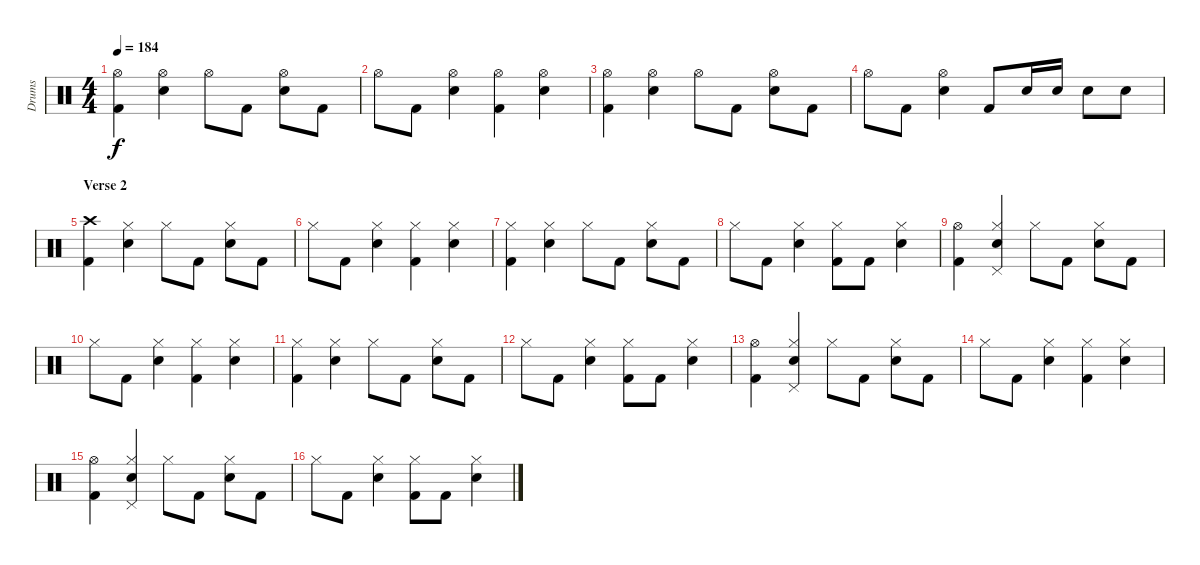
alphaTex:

\track ("Drums" "Drums") {instrument percussion}
\staff {score}
\articulation defaults
\ts (4 4)
\tempo 184
\clef neutral
\ks c
("Hi-Hat (open)" "Kick (hit) 2").4{dy f} ("Hi-Hat (open)" "Snare (hit) 2").4 "Hi-Hat (open)".8 "Kick (hit) 2".8 ("Hi-Hat (open)" "Snare (hit) 2").8 "Kick (hit) 2".8 |
"Hi-Hat (open)".8 "Kick (hit) 2".8 ("Hi-Hat (open)" "Snare (hit) 2").4 ("Hi-Hat (open)" "Kick (hit) 2").4 ("Hi-Hat (open)" "Snare (hit) 2").4 |
("Hi-Hat (open)" "Kick (hit) 2").4 ("Hi-Hat (open)" "Snare (hit) 2").4 "Hi-Hat (open)".8 "Kick (hit) 2".8 ("Hi-Hat (open)" "Snare (hit) 2").8 "Kick (hit) 2".8 |
"Hi-Hat (open)".8 "Kick (hit) 2".8 ("Hi-Hat (open)" "Snare (hit) 2").4 "Kick (hit) 2".8 "Snare (hit) 2".16 "Snare (hit) 2".16 "Snare (hit) 2".8 "Snare (hit) 2".8 |
\section ("" "Verse 2")
("Crash high (hit)" "Kick (hit) 2").4 ("Hi-Hat (closed)" "Snare (hit) 2").4 "Hi-Hat (closed)".8 "Kick (hit) 2".8 ("Hi-Hat (closed)" "Snare (hit) 2").8 "Kick (hit) 2".8 |
"Hi-Hat (closed)".8 "Kick (hit) 2".8 ("Hi-Hat (closed)" "Snare (hit) 2").4 ("Hi-Hat (closed)" "Kick (hit) 2").4 ("Hi-Hat (closed)" "Snare (hit) 2").4 |
("Hi-Hat (closed)" "Kick (hit) 2").4 ("Hi-Hat (closed)" "Snare (hit) 2").4 "Hi-Hat (closed)".8 "Kick (hit) 2".8 ("Hi-Hat (closed)" "Snare (hit) 2").8 "Kick (hit) 2".8 |
"Hi-Hat (closed)".8 "Kick (hit) 2".8 ("Hi-Hat (closed)" "Snare (hit) 2").4 ("Hi-Hat (closed)" "Kick (hit) 2").8 "Kick (hit) 2".8 ("Hi-Hat (closed)" "Snare (hit) 2").4 |
("Hi-Hat (open)" "Kick (hit) 2").4 ("Hi-Hat (closed)" "Snare (hit) 2" "Pedal Hi-Hat (hit)").4 "Hi-Hat (closed)".8 "Kick (hit) 2".8 ("Hi-Hat (closed)" "Snare (hit) 2").8 "Kick (hit) 2".8 |
"Hi-Hat (closed)".8 "Kick (hit) 2".8 ("Hi-Hat (closed)" "Snare (hit) 2").4 ("Hi-Hat (closed)" "Kick (hit) 2").4 ("Hi-Hat (closed)" "Snare (hit) 2").4 |
("Hi-Hat (closed)" "Kick (hit) 2").4 ("Hi-Hat (closed)" "Snare (hit) 2").4 "Hi-Hat (closed)".8 "Kick (hit) 2".8 ("Hi-Hat (closed)" "Snare (hit) 2").8 "Kick (hit) 2".8 |
"Hi-Hat (closed)".8 "Kick (hit) 2".8 ("Hi-Hat (closed)" "Snare (hit) 2").4 ("Hi-Hat (closed)" "Kick (hit) 2").8 "Kick (hit) 2".8 ("Hi-Hat (closed)" "Snare (hit) 2").4 |
("Hi-Hat (open)" "Kick (hit) 2").4 ("Hi-Hat (closed)" "Snare (hit) 2" "Pedal Hi-Hat (hit)").4 "Hi-Hat (closed)".8 "Kick (hit) 2".8 ("Hi-Hat (closed)" "Snare (hit) 2").8 "Kick (hit) 2".8 |
"Hi-Hat (closed)".8 "Kick (hit) 2".8 ("Hi-Hat (closed)" "Snare (hit) 2").4 ("Hi-Hat (closed)" "Kick (hit) 2").4 ("Hi-Hat (closed)" "Snare (hit) 2").4 |
("Hi-Hat (open)" "Kick (hit) 2").4 ("Hi-Hat (closed)" "Snare (hit) 2" "Pedal Hi-Hat (hit)").4 "Hi-Hat (closed)".8 "Kick (hit) 2".8 ("Hi-Hat (closed)" "Snare (hit) 2").8 "Kick (hit) 2".8 |
"Hi-Hat (closed)".8 "Kick (hit) 2".8 ("Hi-Hat (closed)" "Snare (hit) 2").4 ("Hi-Hat (closed)" "Kick (hit) 2").8 "Kick (hit) 2".8 ("Hi-Hat (closed)" "Snare (hit) 2").4
